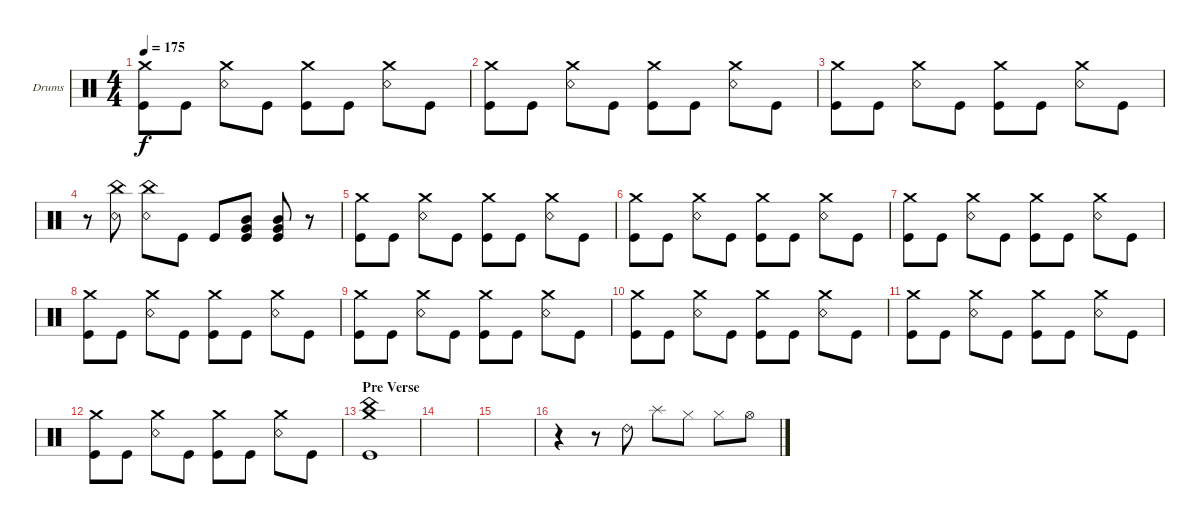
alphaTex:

\bracketExtendMode groupsimilarinstruments
\firstSystemTrackNameOrientation horizontal
\otherSystemsTrackNameOrientation horizontal
\track ("Kanky Lora" "Drums") {instrument percussion}
\staff {score}
\articulation defaults
\ts (4 4)
\tempo 175
\clef neutral
\ks c
("Kick (hit)" "Crash medium (hit)").8{dy f} "Kick (hit)".8 ("Snare (rim shot)" "Crash medium (hit)").8 "Kick (hit)".8 ("Kick (hit)" "Crash medium (hit)").8 "Kick (hit)".8 ("Snare (rim shot)" "Crash medium (hit)").8 "Kick (hit)".8 |
("Kick (hit)" "Crash medium (hit)").8 "Kick (hit)".8 ("Snare (rim shot)" "Crash medium (hit)").8 "Kick (hit)".8 ("Kick (hit)" "Crash medium (hit)").8 "Kick (hit)".8 ("Snare (rim shot)" "Crash medium (hit)").8 "Kick (hit)".8 |
("Kick (hit)" "Crash medium (hit)").8 "Kick (hit)".8 ("Snare (rim shot)" "Crash medium (hit)").8 "Kick (hit)".8 ("Kick (hit)" "Crash medium (hit)").8 "Kick (hit)".8 ("Snare (rim shot)" "Crash medium (hit)").8 "Kick (hit)".8 |
r.8 ("Snare (rim shot)" "China (hit)").8 ("Snare (rim shot)" "China (hit)").8 "Kick (hit)".8 "Kick (hit)".8 ("Mid Tom (hit)" "Very Low Tom (hit)" "Kick (hit)").8 ("Kick (hit)" "Very Low Tom (hit)" "Mid Tom (hit)").8 r.8 |
("Kick (hit)" "Crash medium (hit)").8 "Kick (hit)".8 ("Snare (rim shot)" "Crash medium (hit)").8 "Kick (hit)".8 ("Kick (hit)" "Crash medium (hit)").8 "Kick (hit)".8 ("Snare (rim shot)" "Crash medium (hit)").8 "Kick (hit)".8 |
("Kick (hit)" "Crash medium (hit)").8 "Kick (hit)".8 ("Snare (rim shot)" "Crash medium (hit)").8 "Kick (hit)".8 ("Kick (hit)" "Crash medium (hit)").8 "Kick (hit)".8 ("Snare (rim shot)" "Crash medium (hit)").8 "Kick (hit)".8 |
("Kick (hit)" "Crash medium (hit)").8 "Kick (hit)".8 ("Snare (rim shot)" "Crash medium (hit)").8 "Kick (hit)".8 ("Kick (hit)" "Crash medium (hit)").8 "Kick (hit)".8 ("Snare (rim shot)" "Crash medium (hit)").8 "Kick (hit)".8 |
("Kick (hit)" "Crash medium (hit)").8 "Kick (hit)".8 ("Snare (rim shot)" "Crash medium (hit)").8 "Kick (hit)".8 ("Kick (hit)" "Crash medium (hit)").8 "Kick (hit)".8 ("Snare (rim shot)" "Crash medium (hit)").8 "Kick (hit)".8 |
("Kick (hit)" "Crash medium (hit)").8 "Kick (hit)".8 ("Snare (rim shot)" "Crash medium (hit)").8 "Kick (hit)".8 ("Kick (hit)" "Crash medium (hit)").8 "Kick (hit)".8 ("Snare (rim shot)" "Crash medium (hit)").8 "Kick (hit)".8 |
("Kick (hit)" "Crash medium (hit)").8 "Kick (hit)".8 ("Snare (rim shot)" "Crash medium (hit)").8 "Kick (hit)".8 ("Kick (hit)" "Crash medium (hit)").8 "Kick (hit)".8 ("Snare (rim shot)" "Crash medium (hit)").8 "Kick (hit)".8 |
("Kick (hit)" "Crash medium (hit)").8 "Kick (hit)".8 ("Snare (rim shot)" "Crash medium (hit)").8 "Kick (hit)".8 ("Kick (hit)" "Crash medium (hit)").8 "Kick (hit)".8 ("Snare (rim shot)" "Crash medium (hit)").8 "Kick (hit)".8 |
("Kick (hit)" "Crash medium (hit)").8 "Kick (hit)".8 ("Snare (rim shot)" "Crash medium (hit)").8 "Kick (hit)".8 ("Kick (hit)" "Crash medium (hit)").8 "Kick (hit)".8 ("Snare (rim shot)" "Crash medium (hit)").8 "Kick (hit)".8 |
\section ("" "Pre Verse")
("Kick (hit)" "Crash medium (hit)" "China (hit)").1 |
|
|
r.4 r.8 "Ride (bell) 2".8 "Splash (hit)".8 "Hi-Hat (closed)".8 "Hi-Hat (closed)".8 "Hi-Hat (open)".8
